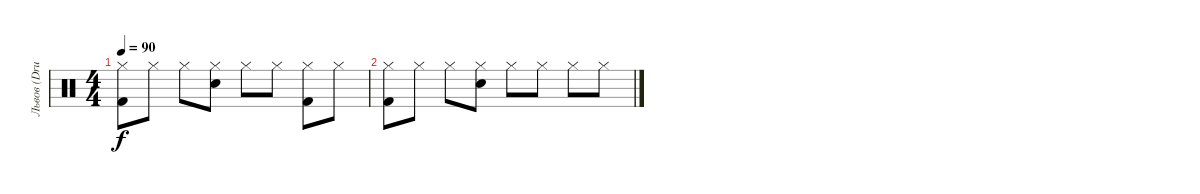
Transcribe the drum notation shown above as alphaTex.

\track ("Львов (Drums)" "Львов (Dru") {instrument percussion}
\staff {score}
\articulation defaults
\ts (4 4)
\tempo 90
\clef neutral
\ks c
("Kick (hit) 2" "Hi-Hat (closed)").8{dy f volume 4} "Hi-Hat (closed)".8 "Hi-Hat (closed)".8 ("Electric Snare (hit)" "Hi-Hat (closed)").8 "Hi-Hat (closed)".8 "Hi-Hat (closed)".8 ("Kick (hit) 2" "Hi-Hat (closed)").8 "Hi-Hat (closed)".8 |
("Kick (hit) 2" "Hi-Hat (closed)").8{volume 1} "Hi-Hat (closed)".8 "Hi-Hat (closed)".8 ("Electric Snare (hit)" "Hi-Hat (closed)").8 "Hi-Hat (closed)".8 "Hi-Hat (closed)".8 "Hi-Hat (closed)".8 "Hi-Hat (closed)".8
